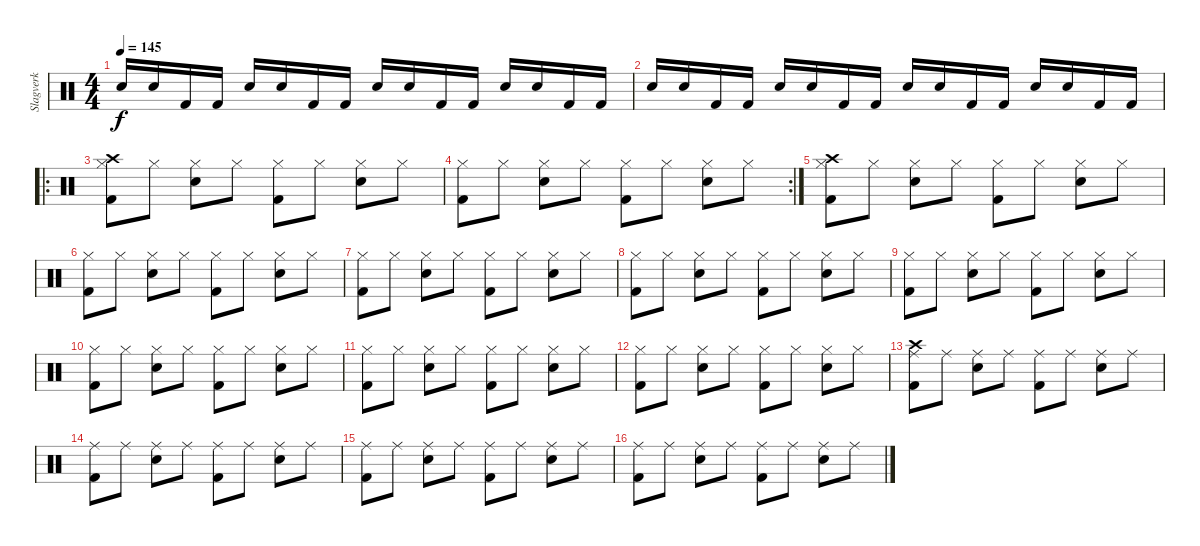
\track ("Slagverk" "Slagverk") {instrument percussion}
\staff {score}
\articulation defaults
\ts (4 4)
\tempo 145
\clef neutral
\ks c "Snare (hit) 2".16{dy f} "Snare (hit) 2".16 "Kick (hit) 2".16 "Kick (hit) 2".16 "Snare (hit) 2".16 "Snare (hit) 2".16 "Kick (hit) 2".16 "Kick (hit) 2".16 "Snare (hit) 2".16 "Snare (hit) 2".16 "Kick (hit) 2".16 "Kick (hit) 2".16 "Snare (hit) 2".16 "Snare (hit) 2".16 "Kick (hit) 2".16 "Kick (hit) 2".16
|
"Snare (hit) 2".16 "Snare (hit) 2".16 "Kick (hit) 2".16 "Kick (hit) 2".16 "Snare (hit) 2".16 "Snare (hit) 2".16 "Kick (hit) 2".16 "Kick (hit) 2".16 "Snare (hit) 2".16 "Snare (hit) 2".16 "Kick (hit) 2".16 "Kick (hit) 2".16 "Snare (hit) 2".16 "Snare (hit) 2".16 "Kick (hit) 2".16 "Kick (hit) 2".16 |
\ro
("Hi-Hat (closed)" "Crash high (hit)" "Kick (hit) 2").8 "Hi-Hat (closed)".8 ("Hi-Hat (closed)" "Snare (hit) 2").8 "Hi-Hat (closed)".8 ("Hi-Hat (closed)" "Kick (hit) 2").8 "Hi-Hat (closed)".8 ("Hi-Hat (closed)" "Snare (hit) 2").8 "Hi-Hat (closed)".8 |
\rc 2
("Hi-Hat (closed)" "Kick (hit) 2").8 "Hi-Hat (closed)".8 ("Hi-Hat (closed)" "Snare (hit) 2").8 "Hi-Hat (closed)".8 ("Hi-Hat (closed)" "Kick (hit) 2").8 "Hi-Hat (closed)".8 ("Hi-Hat (closed)" "Snare (hit) 2").8 "Hi-Hat (closed)".8 |
("Hi-Hat (closed)" "Crash high (hit)" "Kick (hit) 2").8 "Hi-Hat (closed)".8 ("Hi-Hat (closed)" "Snare (hit) 2").8 "Hi-Hat (closed)".8 ("Hi-Hat (closed)" "Kick (hit) 2").8 "Hi-Hat (closed)".8 ("Hi-Hat (closed)" "Snare (hit) 2").8 "Hi-Hat (closed)".8 |
("Hi-Hat (closed)" "Kick (hit) 2").8 "Hi-Hat (closed)".8 ("Hi-Hat (closed)" "Snare (hit) 2").8 "Hi-Hat (closed)".8 ("Hi-Hat (closed)" "Kick (hit) 2").8 "Hi-Hat (closed)".8 ("Hi-Hat (closed)" "Snare (hit) 2").8 "Hi-Hat (closed)".8 |
("Hi-Hat (closed)" "Kick (hit) 2").8 "Hi-Hat (closed)".8 ("Hi-Hat (closed)" "Snare (hit) 2").8 "Hi-Hat (closed)".8 ("Hi-Hat (closed)" "Kick (hit) 2").8 "Hi-Hat (closed)".8 ("Hi-Hat (closed)" "Snare (hit) 2").8 "Hi-Hat (closed)".8 |
("Hi-Hat (closed)" "Kick (hit) 2").8 "Hi-Hat (closed)".8 ("Hi-Hat (closed)" "Snare (hit) 2").8 "Hi-Hat (closed)".8 ("Hi-Hat (closed)" "Kick (hit) 2").8 "Hi-Hat (closed)".8 ("Hi-Hat (closed)" "Snare (hit) 2").8 "Hi-Hat (closed)".8 |
("Hi-Hat (closed)" "Kick (hit) 2").8 "Hi-Hat (closed)".8 ("Hi-Hat (closed)" "Snare (hit) 2").8 "Hi-Hat (closed)".8 ("Hi-Hat (closed)" "Kick (hit) 2").8 "Hi-Hat (closed)".8 ("Hi-Hat (closed)" "Snare (hit) 2").8 "Hi-Hat (closed)".8 |
("Hi-Hat (closed)" "Kick (hit) 2").8 "Hi-Hat (closed)".8 ("Hi-Hat (closed)" "Snare (hit) 2").8 "Hi-Hat (closed)".8 ("Hi-Hat (closed)" "Kick (hit) 2").8 "Hi-Hat (closed)".8 ("Hi-Hat (closed)" "Snare (hit) 2").8 "Hi-Hat (closed)".8 |
("Hi-Hat (closed)" "Kick (hit) 2").8 "Hi-Hat (closed)".8 ("Hi-Hat (closed)" "Snare (hit) 2").8 "Hi-Hat (closed)".8 ("Hi-Hat (closed)" "Kick (hit) 2").8 "Hi-Hat (closed)".8 ("Hi-Hat (closed)" "Snare (hit) 2").8 "Hi-Hat (closed)".8 |
("Hi-Hat (closed)" "Kick (hit) 2").8 "Hi-Hat (closed)".8 ("Hi-Hat (closed)" "Snare (hit) 2").8 "Hi-Hat (closed)".8 ("Hi-Hat (closed)" "Kick (hit) 2").8 "Hi-Hat (closed)".8 ("Hi-Hat (closed)" "Snare (hit) 2").8 "Hi-Hat (closed)".8 |
("Ride (middle)" "Crash high (hit)" "Kick (hit) 2").8 "Ride (middle)".8 ("Ride (middle)" "Snare (hit) 2").8 "Ride (middle)".8 ("Ride (middle)" "Kick (hit) 2").8 "Ride (middle)".8 ("Ride (middle)" "Snare (hit) 2").8 "Ride (middle)".8 |
("Ride (middle)" "Kick (hit) 2").8 "Ride (middle)".8 ("Ride (middle)" "Snare (hit) 2").8 "Ride (middle)".8 ("Ride (middle)" "Kick (hit) 2").8 "Ride (middle)".8 ("Ride (middle)" "Snare (hit) 2").8 "Ride (middle)".8 |
("Ride (middle)" "Kick (hit) 2").8 "Ride (middle)".8 ("Ride (middle)" "Snare (hit) 2").8 "Ride (middle)".8 ("Ride (middle)" "Kick (hit) 2").8 "Ride (middle)".8 ("Ride (middle)" "Snare (hit) 2").8 "Ride (middle)".8 |
("Ride (middle)" "Kick (hit) 2").8 "Ride (middle)".8 ("Ride (middle)" "Snare (hit) 2").8 "Ride (middle)".8 ("Ride (middle)" "Kick (hit) 2").8 "Ride (middle)".8 ("Ride (middle)" "Snare (hit) 2").8 "Ride (middle)".8
